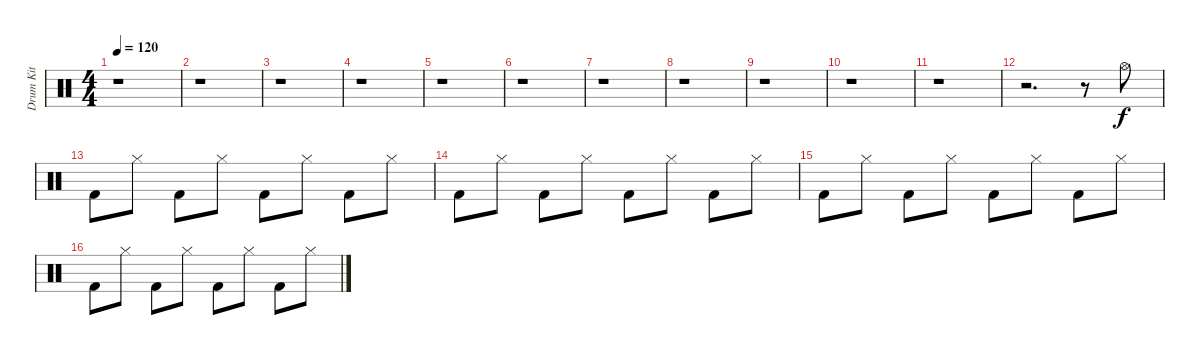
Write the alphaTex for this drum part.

\track ("Drum Kit" "Drum Kit") {instrument percussion}
\staff {score}
\articulation defaults
\ts (4 4)
\tempo 120
\clef neutral
\ks c
r.1{dy f} |
r.1 |
r.1 |
r.1 |
r.1 |
r.1 |
r.1 |
r.1 |
r.1 |
r.1 |
r.1 |
r.2{d} r.8 "Hi-Hat (open)".8 |
"Kick (hit) 2".8 "Hi-Hat (closed)".8 "Kick (hit) 2".8 "Hi-Hat (closed)".8 "Kick (hit) 2".8 "Hi-Hat (closed)".8 "Kick (hit) 2".8 "Hi-Hat (closed)".8 |
"Kick (hit) 2".8 "Hi-Hat (closed)".8 "Kick (hit) 2".8 "Hi-Hat (closed)".8 "Kick (hit) 2".8 "Hi-Hat (closed)".8 "Kick (hit) 2".8 "Hi-Hat (closed)".8 |
"Kick (hit) 2".8 "Hi-Hat (closed)".8 "Kick (hit) 2".8 "Hi-Hat (closed)".8 "Kick (hit) 2".8 "Hi-Hat (closed)".8 "Kick (hit) 2".8 "Hi-Hat (closed)".8 |
"Kick (hit) 2".8 "Hi-Hat (closed)".8 "Kick (hit) 2".8 "Hi-Hat (closed)".8 "Kick (hit) 2".8 "Hi-Hat (closed)".8 "Kick (hit) 2".8 "Hi-Hat (closed)".8
